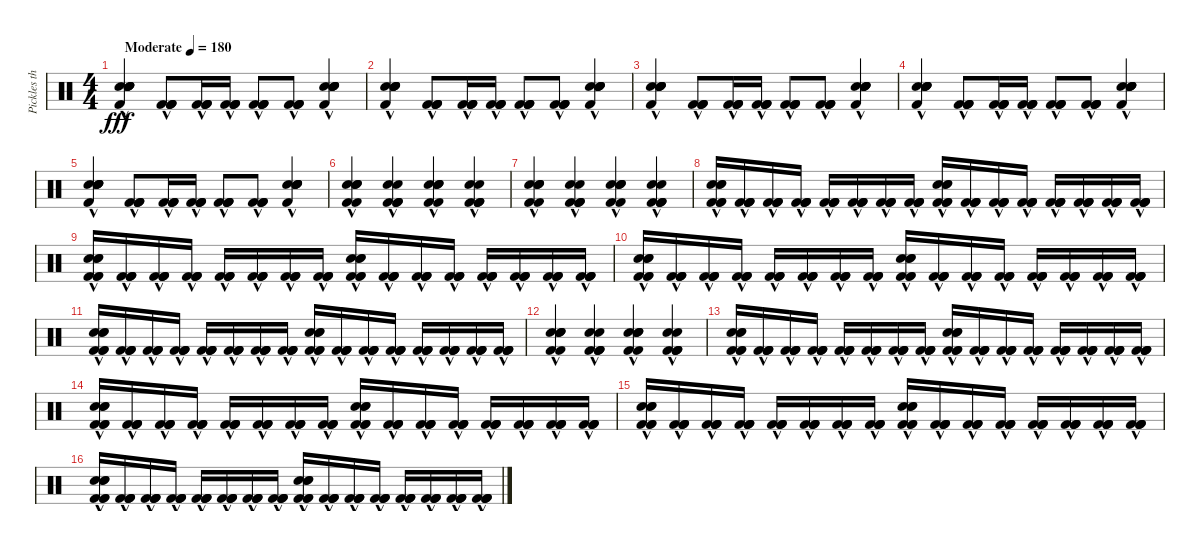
\track ("Pickles the Drummer" "Pickles th") {instrument percussion}
\staff {score}
\articulation defaults
\ts (4 4)
\tempo (180 "Moderate")
\clef neutral
\ks c
("Snare (hit) 2"{hac} "Snare (hit) 2"{hac} "Electric Snare (hit)"{hac} "Electric Snare (hit)"{hac} "Electric Snare (hit)"{hac} "Kick (hit) 2"{hac}).4{dy fff} ("Kick (hit) 2"{hac} "Kick (hit) 2"{hac} "Kick (hit) 2"{hac} "Kick (hit) 2"{hac}).8 ("Kick (hit) 2"{hac} "Kick (hit) 2"{hac} "Kick (hit) 2"{hac} "Kick (hit) 2"{hac}).16 ("Kick (hit) 2"{hac} "Kick (hit) 2"{hac} "Kick (hit) 2"{hac} "Kick (hit) 2"{hac}).16 ("Kick (hit) 2"{hac} "Kick (hit) 2"{hac} "Kick (hit) 2"{hac} "Kick (hit) 2"{hac}).8 ("Kick (hit) 2"{hac} "Kick (hit) 2"{hac} "Kick (hit) 2"{hac} "Kick (hit) 2"{hac}).8 ("Snare (hit) 2"{hac} "Snare (hit) 2"{hac} "Electric Snare (hit)"{hac} "Electric Snare (hit)"{hac} "Electric Snare (hit)"{hac} "Kick (hit) 2"{hac}).4 |
("Snare (hit) 2"{hac} "Snare (hit) 2"{hac} "Electric Snare (hit)"{hac} "Electric Snare (hit)"{hac} "Electric Snare (hit)"{hac} "Kick (hit) 2"{hac}).4 ("Kick (hit) 2"{hac} "Kick (hit) 2"{hac} "Kick (hit) 2"{hac} "Kick (hit) 2"{hac}).8 ("Kick (hit) 2"{hac} "Kick (hit) 2"{hac} "Kick (hit) 2"{hac} "Kick (hit) 2"{hac}).16 ("Kick (hit) 2"{hac} "Kick (hit) 2"{hac} "Kick (hit) 2"{hac} "Kick (hit) 2"{hac}).16 ("Kick (hit) 2"{hac} "Kick (hit) 2"{hac} "Kick (hit) 2"{hac} "Kick (hit) 2"{hac}).8 ("Kick (hit) 2"{hac} "Kick (hit) 2"{hac} "Kick (hit) 2"{hac} "Kick (hit) 2"{hac}).8 ("Snare (hit) 2"{hac} "Snare (hit) 2"{hac} "Electric Snare (hit)"{hac} "Electric Snare (hit)"{hac} "Electric Snare (hit)"{hac} "Kick (hit) 2"{hac}).4 |
("Snare (hit) 2"{hac} "Snare (hit) 2"{hac} "Electric Snare (hit)"{hac} "Electric Snare (hit)"{hac} "Electric Snare (hit)"{hac} "Kick (hit) 2"{hac}).4 ("Kick (hit) 2"{hac} "Kick (hit) 2"{hac} "Kick (hit) 2"{hac} "Kick (hit) 2"{hac}).8 ("Kick (hit) 2"{hac} "Kick (hit) 2"{hac} "Kick (hit) 2"{hac} "Kick (hit) 2"{hac}).16 ("Kick (hit) 2"{hac} "Kick (hit) 2"{hac} "Kick (hit) 2"{hac} "Kick (hit) 2"{hac}).16 ("Kick (hit) 2"{hac} "Kick (hit) 2"{hac} "Kick (hit) 2"{hac} "Kick (hit) 2"{hac}).8 ("Kick (hit) 2"{hac} "Kick (hit) 2"{hac} "Kick (hit) 2"{hac} "Kick (hit) 2"{hac}).8 ("Snare (hit) 2"{hac} "Snare (hit) 2"{hac} "Electric Snare (hit)"{hac} "Electric Snare (hit)"{hac} "Electric Snare (hit)"{hac} "Kick (hit) 2"{hac}).4 |
("Snare (hit) 2"{hac} "Snare (hit) 2"{hac} "Electric Snare (hit)"{hac} "Electric Snare (hit)"{hac} "Electric Snare (hit)"{hac} "Kick (hit) 2"{hac}).4 ("Kick (hit) 2"{hac} "Kick (hit) 2"{hac} "Kick (hit) 2"{hac} "Kick (hit) 2"{hac}).8 ("Kick (hit) 2"{hac} "Kick (hit) 2"{hac} "Kick (hit) 2"{hac} "Kick (hit) 2"{hac}).16 ("Kick (hit) 2"{hac} "Kick (hit) 2"{hac} "Kick (hit) 2"{hac} "Kick (hit) 2"{hac}).16 ("Kick (hit) 2"{hac} "Kick (hit) 2"{hac} "Kick (hit) 2"{hac} "Kick (hit) 2"{hac}).8 ("Kick (hit) 2"{hac} "Kick (hit) 2"{hac} "Kick (hit) 2"{hac} "Kick (hit) 2"{hac}).8 ("Snare (hit) 2"{hac} "Snare (hit) 2"{hac} "Electric Snare (hit)"{hac} "Electric Snare (hit)"{hac} "Electric Snare (hit)"{hac} "Kick (hit) 2"{hac}).4 |
("Snare (hit) 2"{hac} "Snare (hit) 2"{hac} "Electric Snare (hit)"{hac} "Electric Snare (hit)"{hac} "Electric Snare (hit)"{hac} "Kick (hit) 2"{hac}).4 ("Kick (hit) 2"{hac} "Kick (hit) 2"{hac} "Kick (hit) 2"{hac} "Kick (hit) 2"{hac}).8 ("Kick (hit) 2"{hac} "Kick (hit) 2"{hac} "Kick (hit) 2"{hac} "Kick (hit) 2"{hac}).16 ("Kick (hit) 2"{hac} "Kick (hit) 2"{hac} "Kick (hit) 2"{hac} "Kick (hit) 2"{hac}).16 ("Kick (hit) 2"{hac} "Kick (hit) 2"{hac} "Kick (hit) 2"{hac} "Kick (hit) 2"{hac}).8 ("Kick (hit) 2"{hac} "Kick (hit) 2"{hac} "Kick (hit) 2"{hac} "Kick (hit) 2"{hac}).8 ("Snare (hit) 2"{hac} "Snare (hit) 2"{hac} "Electric Snare (hit)"{hac} "Electric Snare (hit)"{hac} "Electric Snare (hit)"{hac} "Kick (hit) 2"{hac}).4 |
("Kick (hit) 2"{hac} "Electric Snare (hit)"{hac} "Electric Snare (hit)"{hac} "Snare (hit) 2"{hac} "Snare (hit) 2"{hac} "Kick (hit) 2"{hac}).4 ("Kick (hit) 2"{hac} "Snare (hit) 2"{hac} "Snare (hit) 2"{hac} "Kick (hit) 2"{hac} "Kick (hit) 2"{hac} "Kick (hit) 2"{hac}).4 ("Kick (hit) 2"{hac} "Electric Snare (hit)"{hac} "Electric Snare (hit)"{hac} "Snare (hit) 2"{hac} "Snare (hit) 2"{hac} "Kick (hit) 2"{hac}).4 ("Kick (hit) 2"{hac} "Snare (hit) 2"{hac} "Snare (hit) 2"{hac} "Kick (hit) 2"{hac} "Kick (hit) 2"{hac} "Kick (hit) 2"{hac}).4 |
("Kick (hit) 2"{hac} "Electric Snare (hit)"{hac} "Electric Snare (hit)"{hac} "Snare (hit) 2"{hac} "Snare (hit) 2"{hac} "Kick (hit) 2"{hac}).4 ("Kick (hit) 2"{hac} "Snare (hit) 2"{hac} "Snare (hit) 2"{hac} "Kick (hit) 2"{hac} "Kick (hit) 2"{hac} "Kick (hit) 2"{hac}).4 ("Kick (hit) 2"{hac} "Electric Snare (hit)"{hac} "Electric Snare (hit)"{hac} "Snare (hit) 2"{hac} "Snare (hit) 2"{hac} "Kick (hit) 2"{hac}).4 ("Kick (hit) 2"{hac} "Snare (hit) 2"{hac} "Snare (hit) 2"{hac} "Kick (hit) 2"{hac} "Kick (hit) 2"{hac} "Kick (hit) 2"{hac}).4 |
("Electric Snare (hit)"{hac} "Electric Snare (hit)"{hac} "Electric Snare (hit)"{hac} "Kick (hit) 2"{hac} "Kick (hit) 2"{hac} "Kick (hit) 2"{hac}).16 ("Kick (hit) 2"{hac} "Kick (hit) 2"{hac} "Kick (hit) 2"{hac} "Kick (hit) 2"{hac}).16 ("Kick (hit) 2"{hac} "Kick (hit) 2"{hac} "Kick (hit) 2"{hac} "Kick (hit) 2"{hac}).16 ("Kick (hit) 2"{hac} "Kick (hit) 2"{hac} "Kick (hit) 2"{hac} "Kick (hit) 2"{hac}).16 ("Kick (hit) 2"{hac} "Kick (hit) 2"{hac} "Kick (hit) 2"{hac} "Kick (hit) 2"{hac}).16 ("Kick (hit) 2"{hac} "Kick (hit) 2"{hac} "Kick (hit) 2"{hac} "Kick (hit) 2"{hac}).16 ("Kick (hit) 2"{hac} "Kick (hit) 2"{hac} "Kick (hit) 2"{hac} "Kick (hit) 2"{hac}).16 ("Kick (hit) 2"{hac} "Kick (hit) 2"{hac} "Kick (hit) 2"{hac} "Kick (hit) 2"{hac}).16 ("Electric Snare (hit)"{hac} "Electric Snare (hit)"{hac} "Electric Snare (hit)"{hac} "Kick (hit) 2"{hac} "Kick (hit) 2"{hac} "Kick (hit) 2"{hac}).16 ("Kick (hit) 2"{hac} "Kick (hit) 2"{hac} "Kick (hit) 2"{hac} "Kick (hit) 2"{hac}).16 ("Kick (hit) 2"{hac} "Kick (hit) 2"{hac} "Kick (hit) 2"{hac} "Kick (hit) 2"{hac}).16 ("Kick (hit) 2"{hac} "Kick (hit) 2"{hac} "Kick (hit) 2"{hac} "Kick (hit) 2"{hac}).16 ("Kick (hit) 2"{hac} "Kick (hit) 2"{hac} "Kick (hit) 2"{hac} "Kick (hit) 2"{hac}).16 ("Kick (hit) 2"{hac} "Kick (hit) 2"{hac} "Kick (hit) 2"{hac} "Kick (hit) 2"{hac}).16 ("Kick (hit) 2"{hac} "Kick (hit) 2"{hac} "Kick (hit) 2"{hac} "Kick (hit) 2"{hac}).16 ("Kick (hit) 2"{hac} "Kick (hit) 2"{hac} "Kick (hit) 2"{hac} "Kick (hit) 2"{hac}).16 |
("Snare (hit) 2"{hac} "Snare (hit) 2"{hac} "Snare (hit) 2"{hac} "Kick (hit) 2"{hac} "Kick (hit) 2"{hac} "Kick (hit) 2"{hac}).16 ("Kick (hit) 2"{hac} "Kick (hit) 2"{hac} "Kick (hit) 2"{hac} "Kick (hit) 2"{hac}).16 ("Kick (hit) 2"{hac} "Kick (hit) 2"{hac} "Kick (hit) 2"{hac} "Kick (hit) 2"{hac}).16 ("Kick (hit) 2"{hac} "Kick (hit) 2"{hac} "Kick (hit) 2"{hac} "Kick (hit) 2"{hac}).16 ("Kick (hit) 2"{hac} "Kick (hit) 2"{hac} "Kick (hit) 2"{hac} "Kick (hit) 2"{hac}).16 ("Kick (hit) 2"{hac} "Kick (hit) 2"{hac} "Kick (hit) 2"{hac} "Kick (hit) 2"{hac}).16 ("Kick (hit) 2"{hac} "Kick (hit) 2"{hac} "Kick (hit) 2"{hac} "Kick (hit) 2"{hac}).16 ("Kick (hit) 2"{hac} "Kick (hit) 2"{hac} "Kick (hit) 2"{hac} "Kick (hit) 2"{hac}).16 ("Electric Snare (hit)"{hac} "Electric Snare (hit)"{hac} "Electric Snare (hit)"{hac} "Kick (hit) 2"{hac} "Kick (hit) 2"{hac} "Kick (hit) 2"{hac}).16 ("Kick (hit) 2"{hac} "Kick (hit) 2"{hac} "Kick (hit) 2"{hac} "Kick (hit) 2"{hac}).16 ("Kick (hit) 2"{hac} "Kick (hit) 2"{hac} "Kick (hit) 2"{hac} "Kick (hit) 2"{hac}).16 ("Kick (hit) 2"{hac} "Kick (hit) 2"{hac} "Kick (hit) 2"{hac} "Kick (hit) 2"{hac}).16 ("Kick (hit) 2"{hac} "Kick (hit) 2"{hac} "Kick (hit) 2"{hac} "Kick (hit) 2"{hac}).16 ("Kick (hit) 2"{hac} "Kick (hit) 2"{hac} "Kick (hit) 2"{hac} "Kick (hit) 2"{hac}).16 ("Kick (hit) 2"{hac} "Kick (hit) 2"{hac} "Kick (hit) 2"{hac} "Kick (hit) 2"{hac}).16 ("Kick (hit) 2"{hac} "Kick (hit) 2"{hac} "Kick (hit) 2"{hac} "Kick (hit) 2"{hac}).16 |
("Electric Snare (hit)"{hac} "Electric Snare (hit)"{hac} "Electric Snare (hit)"{hac} "Kick (hit) 2"{hac} "Kick (hit) 2"{hac} "Kick (hit) 2"{hac}).16 ("Kick (hit) 2"{hac} "Kick (hit) 2"{hac} "Kick (hit) 2"{hac} "Kick (hit) 2"{hac}).16 ("Kick (hit) 2"{hac} "Kick (hit) 2"{hac} "Kick (hit) 2"{hac} "Kick (hit) 2"{hac}).16 ("Kick (hit) 2"{hac} "Kick (hit) 2"{hac} "Kick (hit) 2"{hac} "Kick (hit) 2"{hac}).16 ("Kick (hit) 2"{hac} "Kick (hit) 2"{hac} "Kick (hit) 2"{hac} "Kick (hit) 2"{hac}).16 ("Kick (hit) 2"{hac} "Kick (hit) 2"{hac} "Kick (hit) 2"{hac} "Kick (hit) 2"{hac}).16 ("Kick (hit) 2"{hac} "Kick (hit) 2"{hac} "Kick (hit) 2"{hac} "Kick (hit) 2"{hac}).16 ("Kick (hit) 2"{hac} "Kick (hit) 2"{hac} "Kick (hit) 2"{hac} "Kick (hit) 2"{hac}).16 ("Electric Snare (hit)"{hac} "Electric Snare (hit)"{hac} "Electric Snare (hit)"{hac} "Kick (hit) 2"{hac} "Kick (hit) 2"{hac} "Kick (hit) 2"{hac}).16 ("Kick (hit) 2"{hac} "Kick (hit) 2"{hac} "Kick (hit) 2"{hac} "Kick (hit) 2"{hac}).16 ("Kick (hit) 2"{hac} "Kick (hit) 2"{hac} "Kick (hit) 2"{hac} "Kick (hit) 2"{hac}).16 ("Kick (hit) 2"{hac} "Kick (hit) 2"{hac} "Kick (hit) 2"{hac} "Kick (hit) 2"{hac}).16 ("Kick (hit) 2"{hac} "Kick (hit) 2"{hac} "Kick (hit) 2"{hac} "Kick (hit) 2"{hac}).16 ("Kick (hit) 2"{hac} "Kick (hit) 2"{hac} "Kick (hit) 2"{hac} "Kick (hit) 2"{hac}).16 ("Kick (hit) 2"{hac} "Kick (hit) 2"{hac} "Kick (hit) 2"{hac} "Kick (hit) 2"{hac}).16 ("Kick (hit) 2"{hac} "Kick (hit) 2"{hac} "Kick (hit) 2"{hac} "Kick (hit) 2"{hac}).16 |
("Snare (hit) 2"{hac} "Snare (hit) 2"{hac} "Snare (hit) 2"{hac} "Kick (hit) 2"{hac} "Kick (hit) 2"{hac} "Kick (hit) 2"{hac}).16 ("Kick (hit) 2"{hac} "Kick (hit) 2"{hac} "Kick (hit) 2"{hac} "Kick (hit) 2"{hac}).16 ("Kick (hit) 2"{hac} "Kick (hit) 2"{hac} "Kick (hit) 2"{hac} "Kick (hit) 2"{hac}).16 ("Kick (hit) 2"{hac} "Kick (hit) 2"{hac} "Kick (hit) 2"{hac} "Kick (hit) 2"{hac}).16 ("Kick (hit) 2"{hac} "Kick (hit) 2"{hac} "Kick (hit) 2"{hac} "Kick (hit) 2"{hac}).16 ("Kick (hit) 2"{hac} "Kick (hit) 2"{hac} "Kick (hit) 2"{hac} "Kick (hit) 2"{hac}).16 ("Kick (hit) 2"{hac} "Kick (hit) 2"{hac} "Kick (hit) 2"{hac} "Kick (hit) 2"{hac}).16 ("Kick (hit) 2"{hac} "Kick (hit) 2"{hac} "Kick (hit) 2"{hac} "Kick (hit) 2"{hac}).16 ("Electric Snare (hit)"{hac} "Electric Snare (hit)"{hac} "Electric Snare (hit)"{hac} "Kick (hit) 2"{hac} "Kick (hit) 2"{hac} "Kick (hit) 2"{hac}).16 ("Kick (hit) 2"{hac} "Kick (hit) 2"{hac} "Kick (hit) 2"{hac} "Kick (hit) 2"{hac}).16 ("Kick (hit) 2"{hac} "Kick (hit) 2"{hac} "Kick (hit) 2"{hac} "Kick (hit) 2"{hac}).16 ("Kick (hit) 2"{hac} "Kick (hit) 2"{hac} "Kick (hit) 2"{hac} "Kick (hit) 2"{hac}).16 ("Kick (hit) 2"{hac} "Kick (hit) 2"{hac} "Kick (hit) 2"{hac} "Kick (hit) 2"{hac}).16 ("Kick (hit) 2"{hac} "Kick (hit) 2"{hac} "Kick (hit) 2"{hac} "Kick (hit) 2"{hac}).16 ("Kick (hit) 2"{hac} "Kick (hit) 2"{hac} "Kick (hit) 2"{hac} "Kick (hit) 2"{hac}).16 ("Kick (hit) 2"{hac} "Kick (hit) 2"{hac} "Kick (hit) 2"{hac} "Kick (hit) 2"{hac}).16 |
("Kick (hit) 2"{hac} "Electric Snare (hit)"{hac} "Electric Snare (hit)"{hac} "Snare (hit) 2"{hac} "Snare (hit) 2"{hac} "Kick (hit) 2"{hac}).4 ("Kick (hit) 2"{hac} "Snare (hit) 2"{hac} "Snare (hit) 2"{hac} "Kick (hit) 2"{hac} "Kick (hit) 2"{hac} "Kick (hit) 2"{hac}).4 ("Kick (hit) 2"{hac} "Electric Snare (hit)"{hac} "Electric Snare (hit)"{hac} "Snare (hit) 2"{hac} "Snare (hit) 2"{hac} "Kick (hit) 2"{hac}).4 ("Kick (hit) 2"{hac} "Snare (hit) 2"{hac} "Snare (hit) 2"{hac} "Kick (hit) 2"{hac} "Kick (hit) 2"{hac} "Kick (hit) 2"{hac}).4 |
("Electric Snare (hit)"{hac} "Electric Snare (hit)"{hac} "Electric Snare (hit)"{hac} "Kick (hit) 2"{hac} "Kick (hit) 2"{hac} "Kick (hit) 2"{hac}).16 ("Kick (hit) 2"{hac} "Kick (hit) 2"{hac} "Kick (hit) 2"{hac} "Kick (hit) 2"{hac}).16 ("Kick (hit) 2"{hac} "Kick (hit) 2"{hac} "Kick (hit) 2"{hac} "Kick (hit) 2"{hac}).16 ("Kick (hit) 2"{hac} "Kick (hit) 2"{hac} "Kick (hit) 2"{hac} "Kick (hit) 2"{hac}).16 ("Kick (hit) 2"{hac} "Kick (hit) 2"{hac} "Kick (hit) 2"{hac} "Kick (hit) 2"{hac}).16 ("Kick (hit) 2"{hac} "Kick (hit) 2"{hac} "Kick (hit) 2"{hac} "Kick (hit) 2"{hac}).16 ("Kick (hit) 2"{hac} "Kick (hit) 2"{hac} "Kick (hit) 2"{hac} "Kick (hit) 2"{hac}).16 ("Kick (hit) 2"{hac} "Kick (hit) 2"{hac} "Kick (hit) 2"{hac} "Kick (hit) 2"{hac}).16 ("Electric Snare (hit)"{hac} "Electric Snare (hit)"{hac} "Electric Snare (hit)"{hac} "Kick (hit) 2"{hac} "Kick (hit) 2"{hac} "Kick (hit) 2"{hac}).16 ("Kick (hit) 2"{hac} "Kick (hit) 2"{hac} "Kick (hit) 2"{hac} "Kick (hit) 2"{hac}).16 ("Kick (hit) 2"{hac} "Kick (hit) 2"{hac} "Kick (hit) 2"{hac} "Kick (hit) 2"{hac}).16 ("Kick (hit) 2"{hac} "Kick (hit) 2"{hac} "Kick (hit) 2"{hac} "Kick (hit) 2"{hac}).16 ("Kick (hit) 2"{hac} "Kick (hit) 2"{hac} "Kick (hit) 2"{hac} "Kick (hit) 2"{hac}).16 ("Kick (hit) 2"{hac} "Kick (hit) 2"{hac} "Kick (hit) 2"{hac} "Kick (hit) 2"{hac}).16 ("Kick (hit) 2"{hac} "Kick (hit) 2"{hac} "Kick (hit) 2"{hac} "Kick (hit) 2"{hac}).16 ("Kick (hit) 2"{hac} "Kick (hit) 2"{hac} "Kick (hit) 2"{hac} "Kick (hit) 2"{hac}).16 |
("Snare (hit) 2"{hac} "Snare (hit) 2"{hac} "Snare (hit) 2"{hac} "Kick (hit) 2"{hac} "Kick (hit) 2"{hac} "Kick (hit) 2"{hac}).16 ("Kick (hit) 2"{hac} "Kick (hit) 2"{hac} "Kick (hit) 2"{hac} "Kick (hit) 2"{hac}).16 ("Kick (hit) 2"{hac} "Kick (hit) 2"{hac} "Kick (hit) 2"{hac} "Kick (hit) 2"{hac}).16 ("Kick (hit) 2"{hac} "Kick (hit) 2"{hac} "Kick (hit) 2"{hac} "Kick (hit) 2"{hac}).16 ("Kick (hit) 2"{hac} "Kick (hit) 2"{hac} "Kick (hit) 2"{hac} "Kick (hit) 2"{hac}).16 ("Kick (hit) 2"{hac} "Kick (hit) 2"{hac} "Kick (hit) 2"{hac} "Kick (hit) 2"{hac}).16 ("Kick (hit) 2"{hac} "Kick (hit) 2"{hac} "Kick (hit) 2"{hac} "Kick (hit) 2"{hac}).16 ("Kick (hit) 2"{hac} "Kick (hit) 2"{hac} "Kick (hit) 2"{hac} "Kick (hit) 2"{hac}).16 ("Electric Snare (hit)"{hac} "Electric Snare (hit)"{hac} "Electric Snare (hit)"{hac} "Kick (hit) 2"{hac} "Kick (hit) 2"{hac} "Kick (hit) 2"{hac}).16 ("Kick (hit) 2"{hac} "Kick (hit) 2"{hac} "Kick (hit) 2"{hac} "Kick (hit) 2"{hac}).16 ("Kick (hit) 2"{hac} "Kick (hit) 2"{hac} "Kick (hit) 2"{hac} "Kick (hit) 2"{hac}).16 ("Kick (hit) 2"{hac} "Kick (hit) 2"{hac} "Kick (hit) 2"{hac} "Kick (hit) 2"{hac}).16 ("Kick (hit) 2"{hac} "Kick (hit) 2"{hac} "Kick (hit) 2"{hac} "Kick (hit) 2"{hac}).16 ("Kick (hit) 2"{hac} "Kick (hit) 2"{hac} "Kick (hit) 2"{hac} "Kick (hit) 2"{hac}).16 ("Kick (hit) 2"{hac} "Kick (hit) 2"{hac} "Kick (hit) 2"{hac} "Kick (hit) 2"{hac}).16 ("Kick (hit) 2"{hac} "Kick (hit) 2"{hac} "Kick (hit) 2"{hac} "Kick (hit) 2"{hac}).16 |
("Electric Snare (hit)"{hac} "Electric Snare (hit)"{hac} "Electric Snare (hit)"{hac} "Kick (hit) 2"{hac} "Kick (hit) 2"{hac} "Kick (hit) 2"{hac}).16 ("Kick (hit) 2"{hac} "Kick (hit) 2"{hac} "Kick (hit) 2"{hac} "Kick (hit) 2"{hac}).16 ("Kick (hit) 2"{hac} "Kick (hit) 2"{hac} "Kick (hit) 2"{hac} "Kick (hit) 2"{hac}).16 ("Kick (hit) 2"{hac} "Kick (hit) 2"{hac} "Kick (hit) 2"{hac} "Kick (hit) 2"{hac}).16 ("Kick (hit) 2"{hac} "Kick (hit) 2"{hac} "Kick (hit) 2"{hac} "Kick (hit) 2"{hac}).16 ("Kick (hit) 2"{hac} "Kick (hit) 2"{hac} "Kick (hit) 2"{hac} "Kick (hit) 2"{hac}).16 ("Kick (hit) 2"{hac} "Kick (hit) 2"{hac} "Kick (hit) 2"{hac} "Kick (hit) 2"{hac}).16 ("Kick (hit) 2"{hac} "Kick (hit) 2"{hac} "Kick (hit) 2"{hac} "Kick (hit) 2"{hac}).16 ("Electric Snare (hit)"{hac} "Electric Snare (hit)"{hac} "Electric Snare (hit)"{hac} "Kick (hit) 2"{hac} "Kick (hit) 2"{hac} "Kick (hit) 2"{hac}).16 ("Kick (hit) 2"{hac} "Kick (hit) 2"{hac} "Kick (hit) 2"{hac} "Kick (hit) 2"{hac}).16 ("Kick (hit) 2"{hac} "Kick (hit) 2"{hac} "Kick (hit) 2"{hac} "Kick (hit) 2"{hac}).16 ("Kick (hit) 2"{hac} "Kick (hit) 2"{hac} "Kick (hit) 2"{hac} "Kick (hit) 2"{hac}).16 ("Kick (hit) 2"{hac} "Kick (hit) 2"{hac} "Kick (hit) 2"{hac} "Kick (hit) 2"{hac}).16 ("Kick (hit) 2"{hac} "Kick (hit) 2"{hac} "Kick (hit) 2"{hac} "Kick (hit) 2"{hac}).16 ("Kick (hit) 2"{hac} "Kick (hit) 2"{hac} "Kick (hit) 2"{hac} "Kick (hit) 2"{hac}).16 ("Kick (hit) 2"{hac} "Kick (hit) 2"{hac} "Kick (hit) 2"{hac} "Kick (hit) 2"{hac}).16 |
("Snare (hit) 2"{hac} "Snare (hit) 2"{hac} "Snare (hit) 2"{hac} "Kick (hit) 2"{hac} "Kick (hit) 2"{hac} "Kick (hit) 2"{hac}).16 ("Kick (hit) 2"{hac} "Kick (hit) 2"{hac} "Kick (hit) 2"{hac} "Kick (hit) 2"{hac}).16 ("Kick (hit) 2"{hac} "Kick (hit) 2"{hac} "Kick (hit) 2"{hac} "Kick (hit) 2"{hac}).16 ("Kick (hit) 2"{hac} "Kick (hit) 2"{hac} "Kick (hit) 2"{hac} "Kick (hit) 2"{hac}).16 ("Kick (hit) 2"{hac} "Kick (hit) 2"{hac} "Kick (hit) 2"{hac} "Kick (hit) 2"{hac}).16 ("Kick (hit) 2"{hac} "Kick (hit) 2"{hac} "Kick (hit) 2"{hac} "Kick (hit) 2"{hac}).16 ("Kick (hit) 2"{hac} "Kick (hit) 2"{hac} "Kick (hit) 2"{hac} "Kick (hit) 2"{hac}).16 ("Kick (hit) 2"{hac} "Kick (hit) 2"{hac} "Kick (hit) 2"{hac} "Kick (hit) 2"{hac}).16 ("Electric Snare (hit)"{hac} "Electric Snare (hit)"{hac} "Electric Snare (hit)"{hac} "Kick (hit) 2"{hac} "Kick (hit) 2"{hac} "Kick (hit) 2"{hac}).16 ("Kick (hit) 2"{hac} "Kick (hit) 2"{hac} "Kick (hit) 2"{hac} "Kick (hit) 2"{hac}).16 ("Kick (hit) 2"{hac} "Kick (hit) 2"{hac} "Kick (hit) 2"{hac} "Kick (hit) 2"{hac}).16 ("Kick (hit) 2"{hac} "Kick (hit) 2"{hac} "Kick (hit) 2"{hac} "Kick (hit) 2"{hac}).16 ("Kick (hit) 2"{hac} "Kick (hit) 2"{hac} "Kick (hit) 2"{hac} "Kick (hit) 2"{hac}).16 ("Kick (hit) 2"{hac} "Kick (hit) 2"{hac} "Kick (hit) 2"{hac} "Kick (hit) 2"{hac}).16 ("Kick (hit) 2"{hac} "Kick (hit) 2"{hac} "Kick (hit) 2"{hac} "Kick (hit) 2"{hac}).16 ("Kick (hit) 2"{hac} "Kick (hit) 2"{hac} "Kick (hit) 2"{hac} "Kick (hit) 2"{hac}).16
